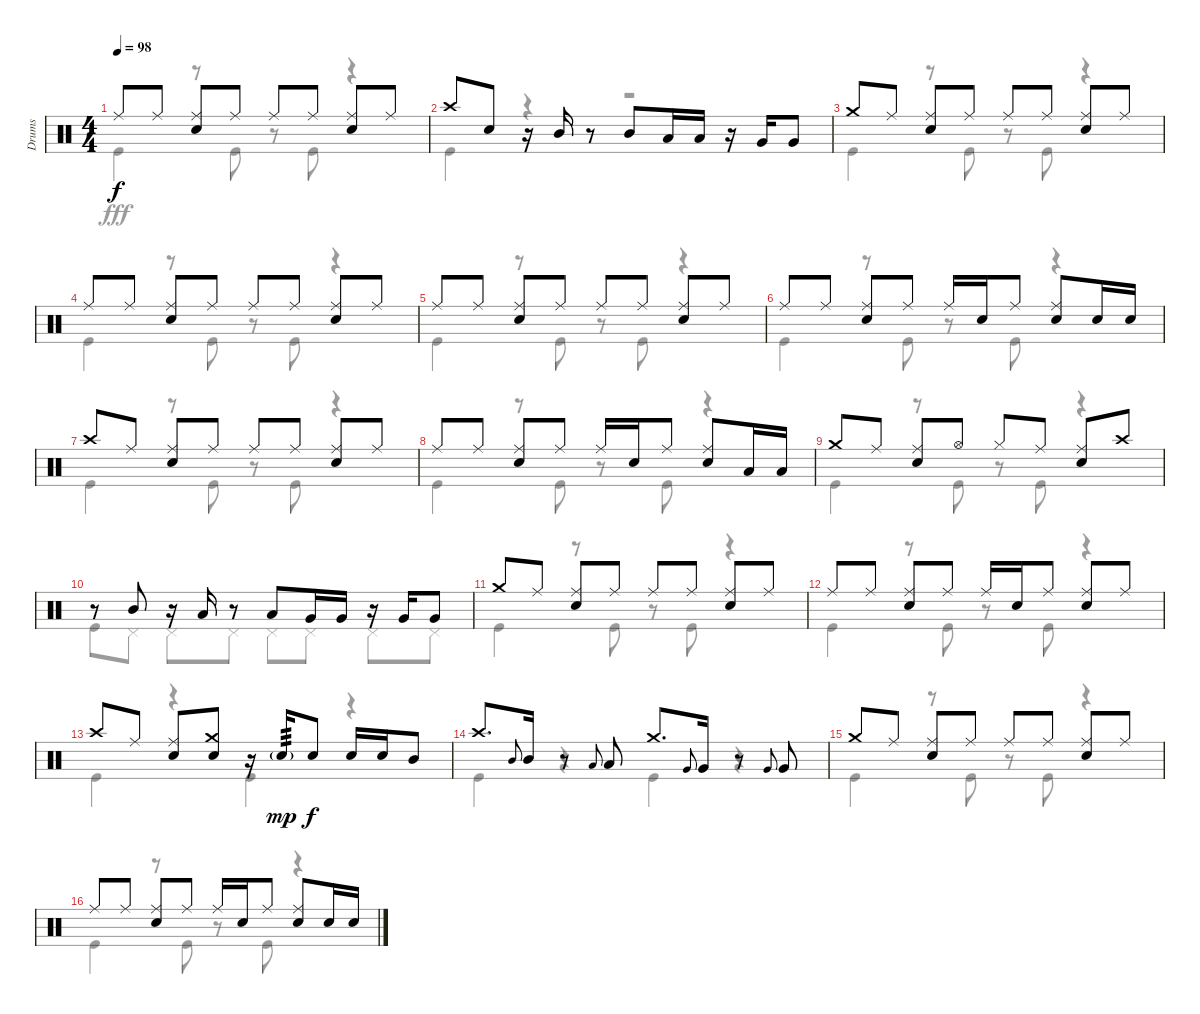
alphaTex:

\track ("Drums" "Drums") {instrument percussion}
\staff {score}
\articulation defaults
\voice
\ts (4 4)
\tempo 98
\clef neutral
\ks c "Ride (middle)".8{dy f} "Ride (middle)".8
("Ride (middle)" "Snare (hit) 2").8 "Ride (middle)".8 "Ride (middle)".8 "Ride (middle)".8 ("Ride (middle)" "Snare (hit) 2").8 "Ride (middle)".8 |
"Crash high (hit)".8 "Snare (hit) 2".8 r.16 "Mid Tom (hit)".16 r.8 "Mid Tom (hit)".8 "Low Tom (hit)".16 "Low Tom (hit)".16 r.16 "Very Low Tom (hit)".16 "Very Low Tom (hit)".8 |
"Crash medium (hit)".8 "Ride (middle)".8 ("Ride (middle)" "Snare (hit) 2").8 "Ride (middle)".8 "Ride (middle)".8 "Ride (middle)".8 ("Ride (middle)" "Snare (hit) 2").8 "Ride (middle)".8 |
"Ride (middle)".8 "Ride (middle)".8 ("Ride (middle)" "Snare (hit) 2").8 "Ride (middle)".8 "Ride (middle)".8 "Ride (middle)".8 ("Ride (middle)" "Snare (hit) 2").8 "Ride (middle)".8 |
"Ride (middle)".8 "Ride (middle)".8 ("Ride (middle)" "Snare (hit) 2").8 "Ride (middle)".8 "Ride (middle)".8 "Ride (middle)".8 ("Ride (middle)" "Snare (hit) 2").8 "Ride (middle)".8 |
"Ride (middle)".8 "Ride (middle)".8 ("Ride (middle)" "Snare (hit) 2").8 "Ride (middle)".8 "Ride (middle)".16 "Snare (hit) 2".16 "Ride (middle)".8 ("Ride (middle)" "Snare (hit) 2").8 "Snare (hit) 2".16 "Snare (hit) 2".16 |
"Crash high (hit)".8 "Ride (middle)".8 ("Ride (middle)" "Snare (hit) 2").8 "Ride (middle)".8 "Ride (middle)".8 "Ride (middle)".8 ("Ride (middle)" "Snare (hit) 2").8 "Ride (middle)".8 |
"Ride (middle)".8 "Ride (middle)".8 ("Ride (middle)" "Snare (hit) 2").8 "Ride (middle)".8 "Ride (middle)".16 "Snare (hit) 2".16 "Ride (middle)".8 ("Ride (middle)" "Snare (hit) 2").8 "Low Tom (hit)".16 "Low Tom (hit)".16 |
"Crash medium (hit)".8 "Ride (middle)".8 ("Ride (middle)" "Snare (hit) 2").8 "Hi-Hat (open)".8 "Hi-Hat (closed)".8 "Ride (middle)".8 ("Ride (middle)" "Snare (hit) 2").8 "Crash high (hit)".8 |
r.8 "Mid Tom (hit)".8 r.16 "Low Tom (hit)".16 r.8 "Low Tom (hit)".8 "Very Low Tom (hit)".16 "Very Low Tom (hit)".16 r.16 "Very Low Tom (hit)".16 "Very Low Tom (hit)".8 |
"Crash medium (hit)".8 "Ride (middle)".8 ("Ride (middle)" "Snare (hit) 2").8 "Ride (middle)".8 "Ride (middle)".8 "Ride (middle)".8 ("Ride (middle)" "Snare (hit) 2").8 "Ride (middle)".8 |
"Ride (middle)".8 "Ride (middle)".8 ("Ride (middle)" "Snare (hit) 2").8 "Ride (middle)".8 "Ride (middle)".16 "Snare (hit) 2".16 "Ride (middle)".8 ("Ride (middle)" "Snare (hit) 2").8 "Ride (middle)".8 |
"Crash high (hit)".8 "Ride (middle)".8 ("Ride (middle)" "Snare (hit) 2").8 ("Crash medium (hit)" "Snare (hit) 2").8 r.16 "Snare (hit) 2"{g}.16{tp 3 dy mp} "Snare (hit) 2".8{dy f} "Snare (hit) 2".16 "Snare (hit) 2".16 "Mid Tom (hit)".8 |
"Crash high (hit)".8{d} "Mid Tom (hit)".8{gr onbeat} "Mid Tom (hit)".16 r.8 "Low Tom (hit)".8{gr onbeat} "Low Tom (hit)".8 "Crash medium (hit)".8{d} "Very Low Tom (hit)".8{gr onbeat} "Very Low Tom (hit)".16 r.8 "Very Low Tom (hit)".8{gr onbeat} "Very Low Tom (hit)".8 |
"Crash medium (hit)".8 "Ride (middle)".8 ("Ride (middle)" "Snare (hit) 2").8 "Ride (middle)".8 "Ride (middle)".8 "Ride (middle)".8 ("Ride (middle)" "Snare (hit) 2").8 "Ride (middle)".8 |
"Ride (middle)".8 "Ride (middle)".8 ("Ride (middle)" "Snare (hit) 2").8 "Ride (middle)".8 "Ride (middle)".16 "Snare (hit) 2".16 "Ride (middle)".8 ("Ride (middle)" "Snare (hit) 2").8 "Snare (hit) 2".16 "Snare (hit) 2".16
\voice
\clef neutral
\ottava regular
\simile none
\ks c "Kick (hit)".4{dy fff}
r.8 "Kick (hit)".8 r.8 "Kick (hit)".8 r.4 |
"Kick (hit)".4 r.4 r.2 |
"Kick (hit)".4 r.8 "Kick (hit)".8 r.8 "Kick (hit)".8 r.4 |
"Kick (hit)".4 r.8 "Kick (hit)".8 r.8 "Kick (hit)".8 r.4 |
"Kick (hit)".4 r.8 "Kick (hit)".8 r.8 "Kick (hit)".8 r.4 |
"Kick (hit)".4 r.8 "Kick (hit)".8 r.8 "Kick (hit)".8 r.4 |
"Kick (hit)".4 r.8 "Kick (hit)".8 r.8 "Kick (hit)".8 r.4 |
"Kick (hit)".4 r.8 "Kick (hit)".8 r.8 "Kick (hit)".8 r.4 |
"Kick (hit)".4 r.8 "Kick (hit)".8 r.8 "Kick (hit)".8 r.4 |
"Kick (hit)".8 "Pedal Hi-Hat (hit)".8 "Pedal Hi-Hat (hit)".8 "Pedal Hi-Hat (hit)".8 "Pedal Hi-Hat (hit)".8 "Pedal Hi-Hat (hit)".8 "Pedal Hi-Hat (hit)".8 "Pedal Hi-Hat (hit)".8 |
"Kick (hit)".4 r.8 "Kick (hit)".8 r.8 "Kick (hit)".8 r.4 |
"Kick (hit)".4 r.8 "Kick (hit)".8 r.8 "Kick (hit)".8 r.4 |
"Kick (hit)".4 r.4 "Kick (hit)".4 r.4 |
"Kick (hit)".4 r.4 "Kick (hit)".4 r.4 |
"Kick (hit)".4 r.8 "Kick (hit)".8 r.8 "Kick (hit)".8 r.4 |
"Kick (hit)".4 r.8 "Kick (hit)".8 r.8 "Kick (hit)".8 r.4
